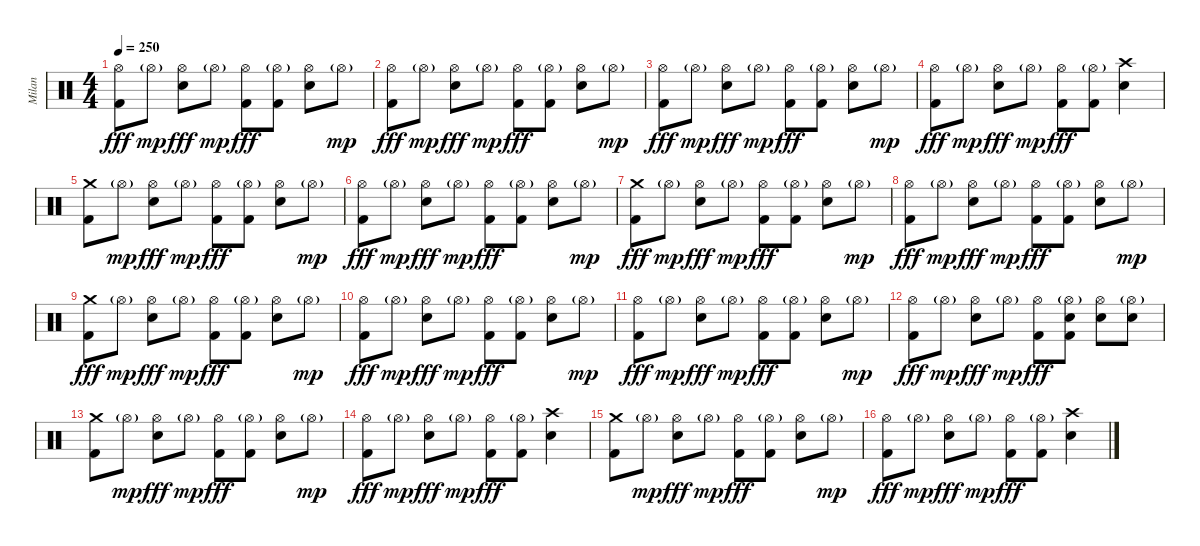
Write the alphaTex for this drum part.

\track ("Milan" "Milan") {instrument percussion}
\staff {score}
\articulation defaults
\ts (4 4)
\tempo 250
\clef neutral
\ks c
("Hi-Hat (open)" "Kick (hit) 2").8{dy fff} "Hi-Hat (open)"{g}.8{dy mp} ("Hi-Hat (open)" "Snare (hit) 2").8{dy fff} "Hi-Hat (open)"{g}.8{dy mp} ("Hi-Hat (open)" "Kick (hit) 2").8{dy fff} ("Hi-Hat (open)"{g} "Kick (hit) 2").8 ("Hi-Hat (open)" "Snare (hit) 2").8 "Hi-Hat (open)"{g}.8{dy mp} |
("Hi-Hat (open)" "Kick (hit) 2").8{dy fff} "Hi-Hat (open)"{g}.8{dy mp} ("Hi-Hat (open)" "Snare (hit) 2").8{dy fff} "Hi-Hat (open)"{g}.8{dy mp} ("Hi-Hat (open)" "Kick (hit) 2").8{dy fff} ("Hi-Hat (open)"{g} "Kick (hit) 2").8 ("Hi-Hat (open)" "Snare (hit) 2").8 "Hi-Hat (open)"{g}.8{dy mp} |
("Hi-Hat (open)" "Kick (hit) 2").8{dy fff} "Hi-Hat (open)"{g}.8{dy mp} ("Hi-Hat (open)" "Snare (hit) 2").8{dy fff} "Hi-Hat (open)"{g}.8{dy mp} ("Hi-Hat (open)" "Kick (hit) 2").8{dy fff} ("Hi-Hat (open)"{g} "Kick (hit) 2").8 ("Hi-Hat (open)" "Snare (hit) 2").8 "Hi-Hat (open)"{g}.8{dy mp} |
("Hi-Hat (open)" "Kick (hit) 2").8{dy fff} "Hi-Hat (open)"{g}.8{dy mp} ("Hi-Hat (open)" "Snare (hit) 2").8{dy fff} "Hi-Hat (open)"{g}.8{dy mp} ("Hi-Hat (open)" "Kick (hit) 2").8{dy fff} ("Hi-Hat (open)"{g} "Kick (hit) 2").8 ("Crash high (hit)" "Snare (hit) 2").4 |
("Crash medium (hit)" "Kick (hit) 2").8 "Hi-Hat (open)"{g}.8{dy mp} ("Hi-Hat (open)" "Snare (hit) 2").8{dy fff} "Hi-Hat (open)"{g}.8{dy mp} ("Hi-Hat (open)" "Kick (hit) 2").8{dy fff} ("Hi-Hat (open)"{g} "Kick (hit) 2").8 ("Hi-Hat (open)" "Snare (hit) 2").8 "Hi-Hat (open)"{g}.8{dy mp} |
("Hi-Hat (open)" "Kick (hit) 2").8{dy fff} "Hi-Hat (open)"{g}.8{dy mp} ("Hi-Hat (open)" "Snare (hit) 2").8{dy fff} "Hi-Hat (open)"{g}.8{dy mp} ("Hi-Hat (open)" "Kick (hit) 2").8{dy fff} ("Hi-Hat (open)"{g} "Kick (hit) 2").8 ("Hi-Hat (open)" "Snare (hit) 2").8 "Hi-Hat (open)"{g}.8{dy mp} |
("Crash medium (hit)" "Kick (hit) 2").8{dy fff} "Hi-Hat (open)"{g}.8{dy mp} ("Hi-Hat (open)" "Snare (hit) 2").8{dy fff} "Hi-Hat (open)"{g}.8{dy mp} ("Hi-Hat (open)" "Kick (hit) 2").8{dy fff} ("Hi-Hat (open)"{g} "Kick (hit) 2").8 ("Hi-Hat (open)" "Snare (hit) 2").8 "Hi-Hat (open)"{g}.8{dy mp} |
("Hi-Hat (open)" "Kick (hit) 2").8{dy fff} "Hi-Hat (open)"{g}.8{dy mp} ("Hi-Hat (open)" "Snare (hit) 2").8{dy fff} "Hi-Hat (open)"{g}.8{dy mp} ("Hi-Hat (open)" "Kick (hit) 2").8{dy fff} ("Hi-Hat (open)"{g} "Kick (hit) 2").8 ("Hi-Hat (open)" "Snare (hit) 2").8 "Hi-Hat (open)"{g}.8{dy mp} |
("Crash medium (hit)" "Kick (hit) 2").8{dy fff} "Hi-Hat (open)"{g}.8{dy mp} ("Hi-Hat (open)" "Snare (hit) 2").8{dy fff} "Hi-Hat (open)"{g}.8{dy mp} ("Hi-Hat (open)" "Kick (hit) 2").8{dy fff} ("Hi-Hat (open)"{g} "Kick (hit) 2").8 ("Hi-Hat (open)" "Snare (hit) 2").8 "Hi-Hat (open)"{g}.8{dy mp} |
("Hi-Hat (open)" "Kick (hit) 2").8{dy fff} "Hi-Hat (open)"{g}.8{dy mp} ("Hi-Hat (open)" "Snare (hit) 2").8{dy fff} "Hi-Hat (open)"{g}.8{dy mp} ("Hi-Hat (open)" "Kick (hit) 2").8{dy fff} ("Hi-Hat (open)"{g} "Kick (hit) 2").8 ("Hi-Hat (open)" "Snare (hit) 2").8 "Hi-Hat (open)"{g}.8{dy mp} |
("Hi-Hat (open)" "Kick (hit) 2").8{dy fff} "Hi-Hat (open)"{g}.8{dy mp} ("Hi-Hat (open)" "Snare (hit) 2").8{dy fff} "Hi-Hat (open)"{g}.8{dy mp} ("Hi-Hat (open)" "Kick (hit) 2").8{dy fff} ("Hi-Hat (open)"{g} "Kick (hit) 2").8 ("Hi-Hat (open)" "Snare (hit) 2").8 "Hi-Hat (open)"{g}.8{dy mp} |
("Hi-Hat (open)" "Kick (hit) 2").8{dy fff} "Hi-Hat (open)"{g}.8{dy mp} ("Hi-Hat (open)" "Snare (hit) 2").8{dy fff} "Hi-Hat (open)"{g}.8{dy mp} ("Hi-Hat (open)" "Kick (hit) 2").8{dy fff} ("Hi-Hat (open)"{g} "Snare (hit) 2" "Kick (hit) 2").8 ("Hi-Hat (open)" "Snare (hit) 2").8 ("Hi-Hat (open)"{g} "Snare (hit) 2").8 |
("Crash medium (hit)" "Kick (hit) 2").8 "Hi-Hat (open)"{g}.8{dy mp} ("Hi-Hat (open)" "Snare (hit) 2").8{dy fff} "Hi-Hat (open)"{g}.8{dy mp} ("Hi-Hat (open)" "Kick (hit) 2").8{dy fff} ("Hi-Hat (open)"{g} "Kick (hit) 2").8 ("Hi-Hat (open)" "Snare (hit) 2").8 "Hi-Hat (open)"{g}.8{dy mp} |
("Hi-Hat (open)" "Kick (hit) 2").8{dy fff} "Hi-Hat (open)"{g}.8{dy mp} ("Hi-Hat (open)" "Snare (hit) 2").8{dy fff} "Hi-Hat (open)"{g}.8{dy mp} ("Hi-Hat (open)" "Kick (hit) 2").8{dy fff} ("Hi-Hat (open)"{g} "Kick (hit) 2").8 ("Crash high (hit)" "Snare (hit) 2").4 |
("Crash medium (hit)" "Kick (hit) 2").8 "Hi-Hat (open)"{g}.8{dy mp} ("Hi-Hat (open)" "Snare (hit) 2").8{dy fff} "Hi-Hat (open)"{g}.8{dy mp} ("Hi-Hat (open)" "Kick (hit) 2").8{dy fff} ("Hi-Hat (open)"{g} "Kick (hit) 2").8 ("Hi-Hat (open)" "Snare (hit) 2").8 "Hi-Hat (open)"{g}.8{dy mp} |
("Hi-Hat (open)" "Kick (hit) 2").8{dy fff} "Hi-Hat (open)"{g}.8{dy mp} ("Hi-Hat (open)" "Snare (hit) 2").8{dy fff} "Hi-Hat (open)"{g}.8{dy mp} ("Hi-Hat (open)" "Kick (hit) 2").8{dy fff} ("Hi-Hat (open)"{g} "Kick (hit) 2").8 ("Crash high (hit)" "Snare (hit) 2").4
